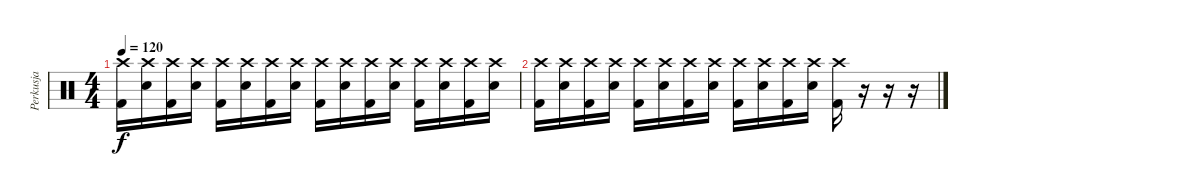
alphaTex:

\track ("Perkusja" "Perkusja") {instrument percussion}
\staff {score}
\articulation defaults
\ts (4 4)
\tempo 120
\clef neutral
\ks c
("Kick (hit) 2" "Crash high (hit)").16{dy f} ("Snare (hit) 2" "Crash high (hit)").16 ("Kick (hit) 2" "Crash high (hit)").16 ("Snare (hit) 2" "Crash high (hit)").16 ("Kick (hit) 2" "Crash high (hit)").16 ("Snare (hit) 2" "Crash high (hit)").16 ("Kick (hit) 2" "Crash high (hit)").16 ("Snare (hit) 2" "Crash high (hit)").16 ("Kick (hit) 2" "Crash high (hit)").16 ("Snare (hit) 2" "Crash high (hit)").16 ("Kick (hit) 2" "Crash high (hit)").16 ("Snare (hit) 2" "Crash high (hit)").16 ("Kick (hit) 2" "Crash high (hit)").16 ("Snare (hit) 2" "Crash high (hit)").16 ("Kick (hit) 2" "Crash high (hit)").16 ("Snare (hit) 2" "Crash high (hit)").16 |
("Kick (hit) 2" "Crash high (hit)").16 ("Snare (hit) 2" "Crash high (hit)").16 ("Kick (hit) 2" "Crash high (hit)").16 ("Snare (hit) 2" "Crash high (hit)").16 ("Kick (hit) 2" "Crash high (hit)").16 ("Snare (hit) 2" "Crash high (hit)").16 ("Kick (hit) 2" "Crash high (hit)").16 ("Snare (hit) 2" "Crash high (hit)").16 ("Kick (hit) 2" "Crash high (hit)").16 ("Snare (hit) 2" "Crash high (hit)").16 ("Kick (hit) 2" "Crash high (hit)").16 ("Snare (hit) 2" "Crash high (hit)").16 ("Kick (hit) 2" "Crash high (hit)").16 r.16 r.16 r.16
